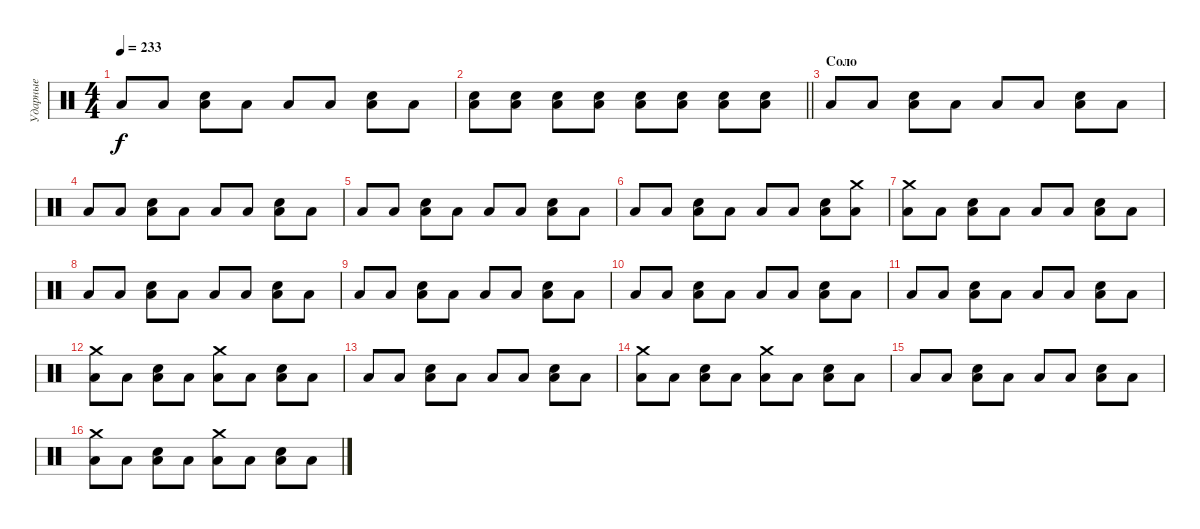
\track ("Ударные" "Ударные") {instrument percussion}
\staff {score}
\articulation defaults
\ts (4 4)
\tempo 233
\clef neutral
\ks c "Low Tom (hit)".8{dy f} "Low Tom (hit)".8
("Electric Snare (hit)" "Low Tom (hit)").8 "Low Tom (hit)".8 "Low Tom (hit)".8 "Low Tom (hit)".8 ("Electric Snare (hit)" "Low Tom (hit)").8 "Low Tom (hit)".8 |
\barLineRight lightlight
("Electric Snare (hit)" "Low Tom (hit)").8 ("Electric Snare (hit)" "Low Tom (hit)").8 ("Electric Snare (hit)" "Low Tom (hit)").8 ("Electric Snare (hit)" "Low Tom (hit)").8 ("Electric Snare (hit)" "Low Tom (hit)").8 ("Electric Snare (hit)" "Low Tom (hit)").8 ("Electric Snare (hit)" "Low Tom (hit)").8 ("Electric Snare (hit)" "Low Tom (hit)").8 |
\section ("" "Соло")
"Low Tom (hit)".8 "Low Tom (hit)".8 ("Electric Snare (hit)" "Low Tom (hit)").8 "Low Tom (hit)".8 "Low Tom (hit)".8 "Low Tom (hit)".8 ("Electric Snare (hit)" "Low Tom (hit)").8 "Low Tom (hit)".8 |
"Low Tom (hit)".8 "Low Tom (hit)".8 ("Electric Snare (hit)" "Low Tom (hit)").8 "Low Tom (hit)".8 "Low Tom (hit)".8 "Low Tom (hit)".8 ("Electric Snare (hit)" "Low Tom (hit)").8 "Low Tom (hit)".8 |
"Low Tom (hit)".8 "Low Tom (hit)".8 ("Electric Snare (hit)" "Low Tom (hit)").8 "Low Tom (hit)".8 "Low Tom (hit)".8 "Low Tom (hit)".8 ("Electric Snare (hit)" "Low Tom (hit)").8 "Low Tom (hit)".8 |
"Low Tom (hit)".8 "Low Tom (hit)".8 ("Electric Snare (hit)" "Low Tom (hit)").8 "Low Tom (hit)".8 "Low Tom (hit)".8 "Low Tom (hit)".8 ("Electric Snare (hit)" "Low Tom (hit)").8 ("Crash medium (hit)" "Low Tom (hit)").8 |
("Crash medium (hit)" "Low Tom (hit)").8 "Low Tom (hit)".8 ("Electric Snare (hit)" "Low Tom (hit)").8 "Low Tom (hit)".8 "Low Tom (hit)".8 "Low Tom (hit)".8 ("Electric Snare (hit)" "Low Tom (hit)").8 "Low Tom (hit)".8 |
"Low Tom (hit)".8 "Low Tom (hit)".8 ("Electric Snare (hit)" "Low Tom (hit)").8 "Low Tom (hit)".8 "Low Tom (hit)".8 "Low Tom (hit)".8 ("Electric Snare (hit)" "Low Tom (hit)").8 "Low Tom (hit)".8 |
"Low Tom (hit)".8 "Low Tom (hit)".8 ("Electric Snare (hit)" "Low Tom (hit)").8 "Low Tom (hit)".8 "Low Tom (hit)".8 "Low Tom (hit)".8 ("Electric Snare (hit)" "Low Tom (hit)").8 "Low Tom (hit)".8 |
"Low Tom (hit)".8 "Low Tom (hit)".8 ("Electric Snare (hit)" "Low Tom (hit)").8 "Low Tom (hit)".8 "Low Tom (hit)".8 "Low Tom (hit)".8 ("Electric Snare (hit)" "Low Tom (hit)").8 "Low Tom (hit)".8 |
"Low Tom (hit)".8 "Low Tom (hit)".8 ("Electric Snare (hit)" "Low Tom (hit)").8 "Low Tom (hit)".8 "Low Tom (hit)".8 "Low Tom (hit)".8 ("Electric Snare (hit)" "Low Tom (hit)").8 "Low Tom (hit)".8 |
("Crash medium (hit)" "Low Tom (hit)").8 "Low Tom (hit)".8 ("Electric Snare (hit)" "Low Tom (hit)").8 "Low Tom (hit)".8 ("Crash medium (hit)" "Low Tom (hit)").8 "Low Tom (hit)".8 ("Electric Snare (hit)" "Low Tom (hit)").8 "Low Tom (hit)".8 |
"Low Tom (hit)".8 "Low Tom (hit)".8 ("Electric Snare (hit)" "Low Tom (hit)").8 "Low Tom (hit)".8 "Low Tom (hit)".8 "Low Tom (hit)".8 ("Electric Snare (hit)" "Low Tom (hit)").8 "Low Tom (hit)".8 |
("Crash medium (hit)" "Low Tom (hit)").8 "Low Tom (hit)".8 ("Electric Snare (hit)" "Low Tom (hit)").8 "Low Tom (hit)".8 ("Crash medium (hit)" "Low Tom (hit)").8 "Low Tom (hit)".8 ("Electric Snare (hit)" "Low Tom (hit)").8 "Low Tom (hit)".8 |
"Low Tom (hit)".8 "Low Tom (hit)".8 ("Electric Snare (hit)" "Low Tom (hit)").8 "Low Tom (hit)".8 "Low Tom (hit)".8 "Low Tom (hit)".8 ("Electric Snare (hit)" "Low Tom (hit)").8 "Low Tom (hit)".8 |
("Crash medium (hit)" "Low Tom (hit)").8 "Low Tom (hit)".8 ("Electric Snare (hit)" "Low Tom (hit)").8 "Low Tom (hit)".8 ("Crash medium (hit)" "Low Tom (hit)").8 "Low Tom (hit)".8 ("Electric Snare (hit)" "Low Tom (hit)").8 "Low Tom (hit)".8
